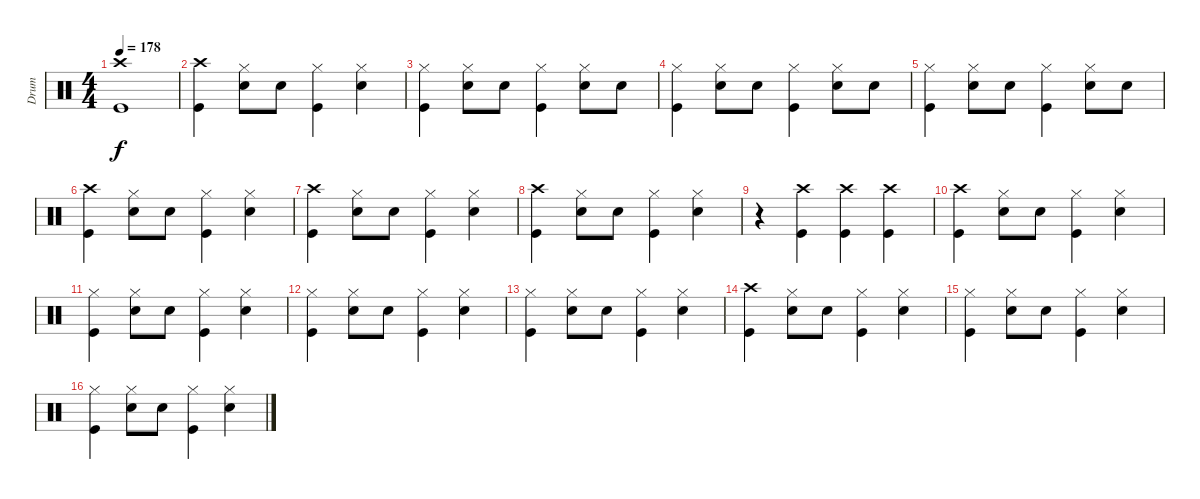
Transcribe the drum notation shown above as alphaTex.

\track ("Drum" "Drum") {instrument percussion}
\staff {score}
\articulation defaults
\ts (4 4)
\tempo 178
\clef neutral
\ks c
("Crash high (hit)" "Kick (hit)").1{dy f} |
("Crash high (hit)" "Kick (hit)").4 ("Hi-Hat (closed)" "Snare (hit) 2").8 "Snare (hit) 2".8 ("Hi-Hat (closed)" "Kick (hit)").4 ("Hi-Hat (closed)" "Snare (hit) 2").4 |
("Hi-Hat (closed)" "Kick (hit)").4 ("Hi-Hat (closed)" "Snare (hit) 2").8 "Snare (hit) 2".8 ("Hi-Hat (closed)" "Kick (hit)").4 ("Hi-Hat (closed)" "Snare (hit) 2").8 "Snare (hit) 2".8 |
("Hi-Hat (closed)" "Kick (hit)").4 ("Hi-Hat (closed)" "Snare (hit) 2").8 "Snare (hit) 2".8 ("Hi-Hat (closed)" "Kick (hit)").4 ("Hi-Hat (closed)" "Snare (hit) 2").8 "Snare (hit) 2".8 |
("Hi-Hat (closed)" "Kick (hit)").4 ("Hi-Hat (closed)" "Snare (hit) 2").8 "Snare (hit) 2".8 ("Hi-Hat (closed)" "Kick (hit)").4 ("Hi-Hat (closed)" "Snare (hit) 2").8 "Snare (hit) 2".8 |
("Crash high (hit)" "Kick (hit)").4 ("Hi-Hat (closed)" "Snare (hit) 2").8 "Snare (hit) 2".8 ("Hi-Hat (closed)" "Kick (hit)").4 ("Hi-Hat (closed)" "Snare (hit) 2").4 |
("Crash high (hit)" "Kick (hit)").4 ("Hi-Hat (closed)" "Snare (hit) 2").8 "Snare (hit) 2".8 ("Hi-Hat (closed)" "Kick (hit)").4 ("Hi-Hat (closed)" "Snare (hit) 2").4 |
("Crash high (hit)" "Kick (hit)").4 ("Hi-Hat (closed)" "Snare (hit) 2").8 "Snare (hit) 2".8 ("Hi-Hat (closed)" "Kick (hit)").4 ("Hi-Hat (closed)" "Snare (hit) 2").4 |
r.4 ("Crash high (hit)" "Kick (hit)").4 ("Crash high (hit)" "Kick (hit)").4 ("Crash high (hit)" "Kick (hit)").4 |
("Crash high (hit)" "Kick (hit)").4 ("Hi-Hat (closed)" "Snare (hit) 2").8 "Snare (hit) 2".8 ("Hi-Hat (closed)" "Kick (hit)").4 ("Hi-Hat (closed)" "Snare (hit) 2").4 |
("Hi-Hat (closed)" "Kick (hit)").4 ("Hi-Hat (closed)" "Snare (hit) 2").8 "Snare (hit) 2".8 ("Hi-Hat (closed)" "Kick (hit)").4 ("Hi-Hat (closed)" "Snare (hit) 2").4 |
("Hi-Hat (closed)" "Kick (hit)").4 ("Hi-Hat (closed)" "Snare (hit) 2").8 "Snare (hit) 2".8 ("Hi-Hat (closed)" "Kick (hit)").4 ("Hi-Hat (closed)" "Snare (hit) 2").4 |
("Hi-Hat (closed)" "Kick (hit)").4 ("Hi-Hat (closed)" "Snare (hit) 2").8 "Snare (hit) 2".8 ("Hi-Hat (closed)" "Kick (hit)").4 ("Hi-Hat (closed)" "Snare (hit) 2").4 |
("Crash high (hit)" "Kick (hit)").4 ("Hi-Hat (closed)" "Snare (hit) 2").8 "Snare (hit) 2".8 ("Hi-Hat (closed)" "Kick (hit)").4 ("Hi-Hat (closed)" "Snare (hit) 2").4 |
("Hi-Hat (closed)" "Kick (hit)").4 ("Hi-Hat (closed)" "Snare (hit) 2").8 "Snare (hit) 2".8 ("Hi-Hat (closed)" "Kick (hit)").4 ("Hi-Hat (closed)" "Snare (hit) 2").4 |
("Hi-Hat (closed)" "Kick (hit)").4 ("Hi-Hat (closed)" "Snare (hit) 2").8 "Snare (hit) 2".8 ("Hi-Hat (closed)" "Kick (hit)").4 ("Hi-Hat (closed)" "Snare (hit) 2").4
